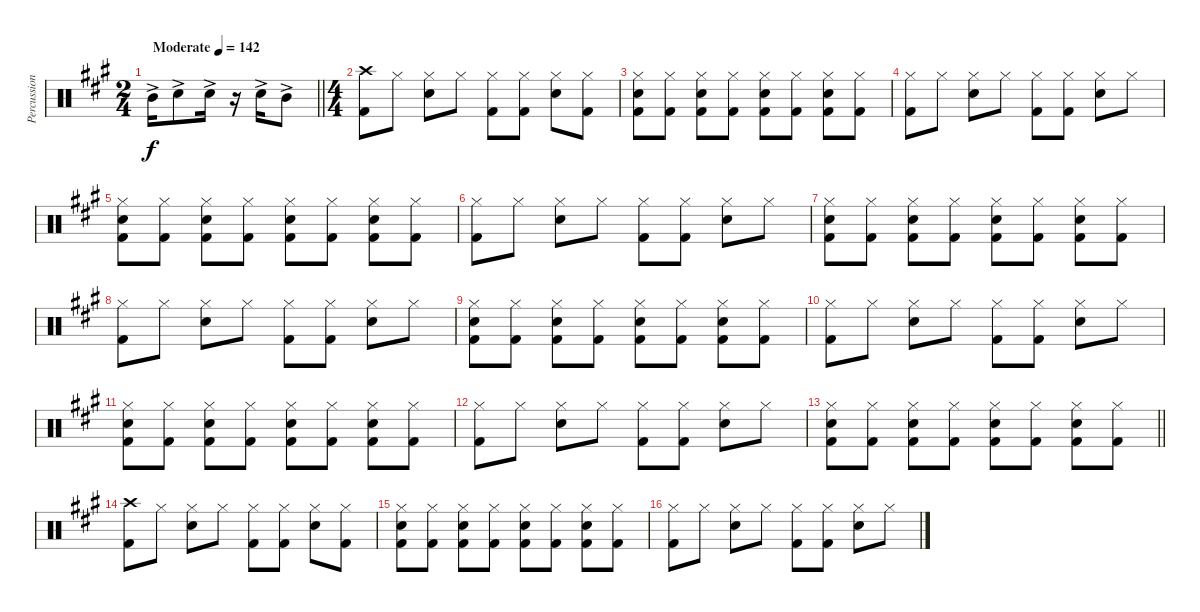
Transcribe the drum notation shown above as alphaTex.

\track ("Percussion" "Percussion") {instrument percussion}
\staff {score}
\articulation defaults
\ts (2 4)
\tempo (142 "Moderate")
\clef neutral
\barLineRight lightlight
\ks a "Mid Tom (hit)"{ac}.16{dy f} "Snare (hit) 2"{ac}.8 "Snare (hit) 2"{ac}.16
r.16 "Snare (hit) 2"{ac}.16 "Mid Tom (hit)"{ac}.8 |
\ts (4 4)
("Crash high (hit)" "Kick (hit) 2").8 "Hi-Hat (closed)".8 ("Hi-Hat (closed)" "Snare (hit) 2").8 "Hi-Hat (closed)".8 ("Hi-Hat (closed)" "Kick (hit) 2").8 ("Hi-Hat (closed)" "Kick (hit) 2").8 ("Hi-Hat (closed)" "Snare (hit) 2").8 ("Hi-Hat (closed)" "Kick (hit) 2").8 |
("Hi-Hat (closed)" "Snare (hit) 2" "Kick (hit) 2").8 ("Hi-Hat (closed)" "Kick (hit) 2").8 ("Hi-Hat (closed)" "Snare (hit) 2" "Kick (hit) 2").8 ("Hi-Hat (closed)" "Kick (hit) 2").8 ("Hi-Hat (closed)" "Snare (hit) 2" "Kick (hit) 2").8 ("Hi-Hat (closed)" "Kick (hit) 2").8 ("Hi-Hat (closed)" "Snare (hit) 2" "Kick (hit) 2").8 ("Hi-Hat (closed)" "Kick (hit) 2").8 |
("Hi-Hat (closed)" "Kick (hit) 2").8 "Hi-Hat (closed)".8 ("Hi-Hat (closed)" "Snare (hit) 2").8 "Hi-Hat (closed)".8 ("Hi-Hat (closed)" "Kick (hit) 2").8 ("Hi-Hat (closed)" "Kick (hit) 2").8 ("Hi-Hat (closed)" "Snare (hit) 2").8 "Hi-Hat (closed)".8 |
("Hi-Hat (closed)" "Snare (hit) 2" "Kick (hit) 2").8 ("Hi-Hat (closed)" "Kick (hit) 2").8 ("Hi-Hat (closed)" "Snare (hit) 2" "Kick (hit) 2").8 ("Hi-Hat (closed)" "Kick (hit) 2").8 ("Hi-Hat (closed)" "Snare (hit) 2" "Kick (hit) 2").8 ("Hi-Hat (closed)" "Kick (hit) 2").8 ("Hi-Hat (closed)" "Snare (hit) 2" "Kick (hit) 2").8 ("Hi-Hat (closed)" "Kick (hit) 2").8 |
("Hi-Hat (closed)" "Kick (hit) 2").8 "Hi-Hat (closed)".8 ("Hi-Hat (closed)" "Snare (hit) 2").8 "Hi-Hat (closed)".8 ("Hi-Hat (closed)" "Kick (hit) 2").8 ("Hi-Hat (closed)" "Kick (hit) 2").8 ("Hi-Hat (closed)" "Snare (hit) 2").8 "Hi-Hat (closed)".8 |
("Hi-Hat (closed)" "Snare (hit) 2" "Kick (hit) 2").8 ("Hi-Hat (closed)" "Kick (hit) 2").8 ("Hi-Hat (closed)" "Snare (hit) 2" "Kick (hit) 2").8 ("Hi-Hat (closed)" "Kick (hit) 2").8 ("Hi-Hat (closed)" "Snare (hit) 2" "Kick (hit) 2").8 ("Hi-Hat (closed)" "Kick (hit) 2").8 ("Hi-Hat (closed)" "Snare (hit) 2" "Kick (hit) 2").8 ("Hi-Hat (closed)" "Kick (hit) 2").8 |
("Hi-Hat (closed)" "Kick (hit) 2").8 "Hi-Hat (closed)".8 ("Hi-Hat (closed)" "Snare (hit) 2").8 "Hi-Hat (closed)".8 ("Hi-Hat (closed)" "Kick (hit) 2").8 ("Hi-Hat (closed)" "Kick (hit) 2").8 ("Hi-Hat (closed)" "Snare (hit) 2").8 "Hi-Hat (closed)".8 |
("Hi-Hat (closed)" "Snare (hit) 2" "Kick (hit) 2").8 ("Hi-Hat (closed)" "Kick (hit) 2").8 ("Hi-Hat (closed)" "Snare (hit) 2" "Kick (hit) 2").8 ("Hi-Hat (closed)" "Kick (hit) 2").8 ("Hi-Hat (closed)" "Snare (hit) 2" "Kick (hit) 2").8 ("Hi-Hat (closed)" "Kick (hit) 2").8 ("Hi-Hat (closed)" "Snare (hit) 2" "Kick (hit) 2").8 ("Hi-Hat (closed)" "Kick (hit) 2").8 |
("Hi-Hat (closed)" "Kick (hit) 2").8 "Hi-Hat (closed)".8 ("Hi-Hat (closed)" "Snare (hit) 2").8 "Hi-Hat (closed)".8 ("Hi-Hat (closed)" "Kick (hit) 2").8 ("Hi-Hat (closed)" "Kick (hit) 2").8 ("Hi-Hat (closed)" "Snare (hit) 2").8 "Hi-Hat (closed)".8 |
("Hi-Hat (closed)" "Snare (hit) 2" "Kick (hit) 2").8 ("Hi-Hat (closed)" "Kick (hit) 2").8 ("Hi-Hat (closed)" "Snare (hit) 2" "Kick (hit) 2").8 ("Hi-Hat (closed)" "Kick (hit) 2").8 ("Hi-Hat (closed)" "Snare (hit) 2" "Kick (hit) 2").8 ("Hi-Hat (closed)" "Kick (hit) 2").8 ("Hi-Hat (closed)" "Snare (hit) 2" "Kick (hit) 2").8 ("Hi-Hat (closed)" "Kick (hit) 2").8 |
("Hi-Hat (closed)" "Kick (hit) 2").8 "Hi-Hat (closed)".8 ("Hi-Hat (closed)" "Snare (hit) 2").8 "Hi-Hat (closed)".8 ("Hi-Hat (closed)" "Kick (hit) 2").8 ("Hi-Hat (closed)" "Kick (hit) 2").8 ("Hi-Hat (closed)" "Snare (hit) 2").8 "Hi-Hat (closed)".8 |
\barLineRight lightlight
("Hi-Hat (closed)" "Snare (hit) 2" "Kick (hit) 2").8 ("Hi-Hat (closed)" "Kick (hit) 2").8 ("Hi-Hat (closed)" "Snare (hit) 2" "Kick (hit) 2").8 ("Hi-Hat (closed)" "Kick (hit) 2").8 ("Hi-Hat (closed)" "Snare (hit) 2" "Kick (hit) 2").8 ("Hi-Hat (closed)" "Kick (hit) 2").8 ("Hi-Hat (closed)" "Snare (hit) 2" "Kick (hit) 2").8 ("Hi-Hat (closed)" "Kick (hit) 2").8 |
("Crash high (hit)" "Kick (hit) 2").8 "Hi-Hat (closed)".8 ("Hi-Hat (closed)" "Snare (hit) 2").8 "Hi-Hat (closed)".8 ("Hi-Hat (closed)" "Kick (hit) 2").8 ("Hi-Hat (closed)" "Kick (hit) 2").8 ("Hi-Hat (closed)" "Snare (hit) 2").8 ("Hi-Hat (closed)" "Kick (hit) 2").8 |
("Hi-Hat (closed)" "Snare (hit) 2" "Kick (hit) 2").8 ("Hi-Hat (closed)" "Kick (hit) 2").8 ("Hi-Hat (closed)" "Snare (hit) 2" "Kick (hit) 2").8 ("Hi-Hat (closed)" "Kick (hit) 2").8 ("Hi-Hat (closed)" "Snare (hit) 2" "Kick (hit) 2").8 ("Hi-Hat (closed)" "Kick (hit) 2").8 ("Hi-Hat (closed)" "Snare (hit) 2" "Kick (hit) 2").8 ("Hi-Hat (closed)" "Kick (hit) 2").8 |
("Hi-Hat (closed)" "Kick (hit) 2").8 "Hi-Hat (closed)".8 ("Hi-Hat (closed)" "Snare (hit) 2").8 "Hi-Hat (closed)".8 ("Hi-Hat (closed)" "Kick (hit) 2").8 ("Hi-Hat (closed)" "Kick (hit) 2").8 ("Hi-Hat (closed)" "Snare (hit) 2").8 "Hi-Hat (closed)".8
